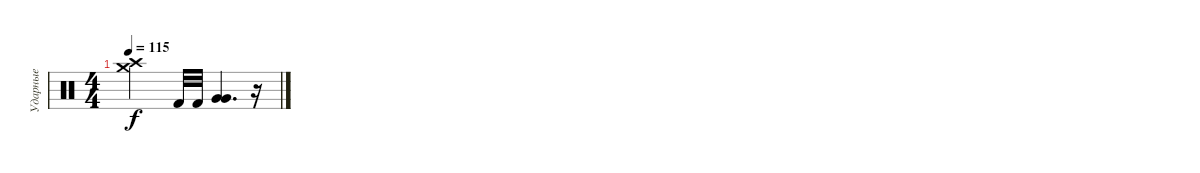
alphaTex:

\track ("Ударные" "Ударные") {instrument percussion}
\staff {score}
\articulation defaults
\ts (4 4)
\tempo 115
\clef neutral
\ks c
("Crash high (hit)" "Crash medium (hit)").2{dy f} "Kick (hit) 2".32 "Kick (hit) 2".32 ("Very Low Tom (hit)" "Very Low Tom (hit)").4{d} r.16
